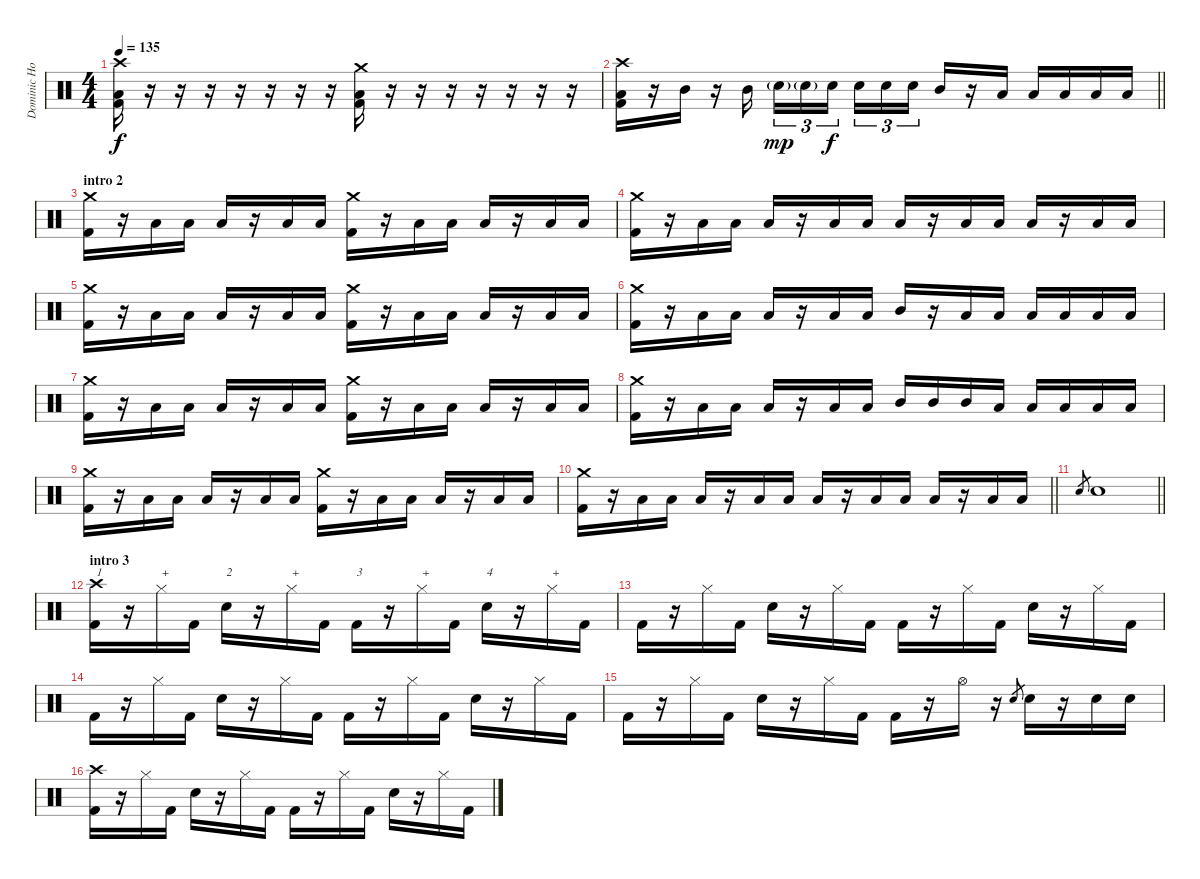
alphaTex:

\track ("Dominic Howard (Drums)" "Dominic Ho") {instrument percussion}
\staff {score}
\articulation defaults
\ts (4 4)
\tempo 135
\clef neutral
\ks c
("Crash high (hit)" "Low Floor Tom (hit)" "Kick (hit) 2").16{dy f} r.16 r.16 r.16 r.16 r.16 r.16 r.16 ("Crash medium (hit)" "Low Floor Tom (hit)" "Kick (hit) 2").16 r.16 r.16 r.16 r.16 r.16 r.16 r.16 |
\barLineRight lightlight
("Crash high (hit)" "Low Floor Tom (hit)" "Kick (hit) 2").16 r.16 "Mid Tom (hit)".16{volume 10} r.16 "Mid Tom (hit)".16{beam splitsecondary} "Electric Snare (hit)"{g}.16{tu (3 2) dy mp} "Electric Snare (hit)"{g}.16{tu (3 2)} "Electric Snare (hit)".16{tu (3 2) dy f beam splitsecondary} "Electric Snare (hit)".16{tu (3 2)} "Electric Snare (hit)".16{tu (3 2)} "Electric Snare (hit)".16{tu (3 2)} "Mid Tom (hit)".16 r.16 "Low Tom (hit)".16 "Low Tom (hit)".16 "Low Tom (hit)".16 "Low Floor Tom (hit)".16 "Low Floor Tom (hit)".16 |
\section ("" "intro 2")
("Crash medium (hit)" "Kick (hit) 2").16 r.16 "Low Floor Tom (hit)".16 "Low Floor Tom (hit)".16 "Low Floor Tom (hit)".16 r.16 "Low Floor Tom (hit)".16 "Low Floor Tom (hit)".16 ("Crash medium (hit)" "Kick (hit) 2").16 r.16 "Low Floor Tom (hit)".16 "Low Floor Tom (hit)".16 "Low Floor Tom (hit)".16 r.16 "Low Floor Tom (hit)".16 "Low Floor Tom (hit)".16 |
("Crash medium (hit)" "Kick (hit) 2").16 r.16 "Low Floor Tom (hit)".16 "Low Floor Tom (hit)".16 "Low Floor Tom (hit)".16 r.16 "Low Floor Tom (hit)".16 "Low Floor Tom (hit)".16 "Low Floor Tom (hit)".16 r.16 "Low Floor Tom (hit)".16 "Low Floor Tom (hit)".16 "Low Floor Tom (hit)".16 r.16 "Low Floor Tom (hit)".16 "Low Floor Tom (hit)".16 |
("Crash medium (hit)" "Kick (hit) 2").16 r.16 "Low Floor Tom (hit)".16 "Low Floor Tom (hit)".16 "Low Floor Tom (hit)".16 r.16 "Low Floor Tom (hit)".16 "Low Floor Tom (hit)".16 ("Crash medium (hit)" "Kick (hit) 2").16 r.16 "Low Floor Tom (hit)".16 "Low Floor Tom (hit)".16 "Low Floor Tom (hit)".16 r.16 "Low Floor Tom (hit)".16 "Low Floor Tom (hit)".16 |
("Crash medium (hit)" "Kick (hit) 2").16 r.16 "Low Floor Tom (hit)".16 "Low Floor Tom (hit)".16 "Low Floor Tom (hit)".16 r.16 "Low Floor Tom (hit)".16 "Low Floor Tom (hit)".16 "Mid Tom (hit)".16 r.16 "Low Floor Tom (hit)".16 "Low Floor Tom (hit)".16 "Low Floor Tom (hit)".16 "Low Floor Tom (hit)".16 "Low Tom (hit)".16 "Low Tom (hit)".16 |
("Crash medium (hit)" "Kick (hit) 2").16 r.16 "Low Floor Tom (hit)".16 "Low Floor Tom (hit)".16 "Low Floor Tom (hit)".16 r.16 "Low Floor Tom (hit)".16 "Low Floor Tom (hit)".16 ("Crash medium (hit)" "Kick (hit) 2").16 r.16 "Low Floor Tom (hit)".16 "Low Floor Tom (hit)".16 "Low Floor Tom (hit)".16 r.16 "Low Floor Tom (hit)".16 "Low Floor Tom (hit)".16 |
("Crash medium (hit)" "Kick (hit) 2").16 r.16 "Low Floor Tom (hit)".16 "Low Floor Tom (hit)".16 "Low Tom (hit)".16 r.16 "Low Tom (hit)".16 "Low Tom (hit)".16 "Mid Tom (hit)".16 "Mid Tom (hit)".16 "Mid Tom (hit)".16 "Low Tom (hit)".16 "Low Tom (hit)".16 "Low Tom (hit)".16 "Low Floor Tom (hit)".16 "Low Floor Tom (hit)".16 |
("Crash medium (hit)" "Kick (hit) 2").16 r.16 "Low Floor Tom (hit)".16 "Low Floor Tom (hit)".16 "Low Floor Tom (hit)".16 r.16 "Low Floor Tom (hit)".16 "Low Floor Tom (hit)".16 ("Crash medium (hit)" "Kick (hit) 2").16 r.16 "Low Floor Tom (hit)".16 "Low Floor Tom (hit)".16 "Low Floor Tom (hit)".16 r.16 "Low Floor Tom (hit)".16 "Low Floor Tom (hit)".16 |
\barLineRight lightlight
("Crash medium (hit)" "Kick (hit) 2").16{volume 11} r.16 "Low Floor Tom (hit)".16 "Low Floor Tom (hit)".16 "Low Floor Tom (hit)".16 r.16 "Low Floor Tom (hit)".16 "Low Floor Tom (hit)".16 "Low Floor Tom (hit)".16 r.16 "Low Floor Tom (hit)".16 "Low Floor Tom (hit)".16 "Low Floor Tom (hit)".16 r.16 "Low Floor Tom (hit)".16 "Low Floor Tom (hit)".16 |
\barLineRight lightlight "Electric Snare (hit)".8{gr} "Electric Snare (hit)".1
|
\section ("" "intro 3")
("Crash high (hit)" "Kick (hit) 2").16{txt "1"} r.16 "Hi-Hat (closed)".16{txt "+"} "Kick (hit) 2".16 "Electric Snare (hit)".16{txt "2"} r.16 "Hi-Hat (closed)".16{txt "+"} "Kick (hit) 2".16 "Kick (hit) 2".16{txt "3"} r.16 "Hi-Hat (closed)".16{txt "+"} "Kick (hit) 2".16 "Electric Snare (hit)".16{txt "4"} r.16 "Hi-Hat (closed)".16{txt "+"} "Kick (hit) 2".16 |
"Kick (hit) 2".16 r.16 "Hi-Hat (closed)".16 "Kick (hit) 2".16 "Electric Snare (hit)".16 r.16 "Hi-Hat (closed)".16 "Kick (hit) 2".16 "Kick (hit) 2".16 r.16 "Hi-Hat (closed)".16 "Kick (hit) 2".16 "Electric Snare (hit)".16 r.16 "Hi-Hat (closed)".16 "Kick (hit) 2".16 |
"Kick (hit) 2".16 r.16 "Hi-Hat (closed)".16 "Kick (hit) 2".16 "Electric Snare (hit)".16 r.16 "Hi-Hat (closed)".16 "Kick (hit) 2".16 "Kick (hit) 2".16 r.16 "Hi-Hat (closed)".16 "Kick (hit) 2".16 "Electric Snare (hit)".16 r.16 "Hi-Hat (closed)".16 "Kick (hit) 2".16 |
"Kick (hit) 2".16 r.16 "Hi-Hat (closed)".16 "Kick (hit) 2".16 "Electric Snare (hit)".16 r.16 "Hi-Hat (closed)".16 "Kick (hit) 2".16 "Kick (hit) 2".16 r.16 "Hi-Hat (open)".16 r.16 "Electric Snare (hit)".8{gr} "Electric Snare (hit)".16 r.16 "Electric Snare (hit)".16 "Electric Snare (hit)".16 |
("Crash high (hit)" "Kick (hit) 2").16 r.16 "Hi-Hat (closed)".16 "Kick (hit) 2".16 "Electric Snare (hit)".16 r.16 "Hi-Hat (closed)".16 "Kick (hit) 2".16 "Kick (hit) 2".16 r.16 "Hi-Hat (closed)".16 "Kick (hit) 2".16 "Electric Snare (hit)".16 r.16 "Hi-Hat (closed)".16 "Kick (hit) 2".16
